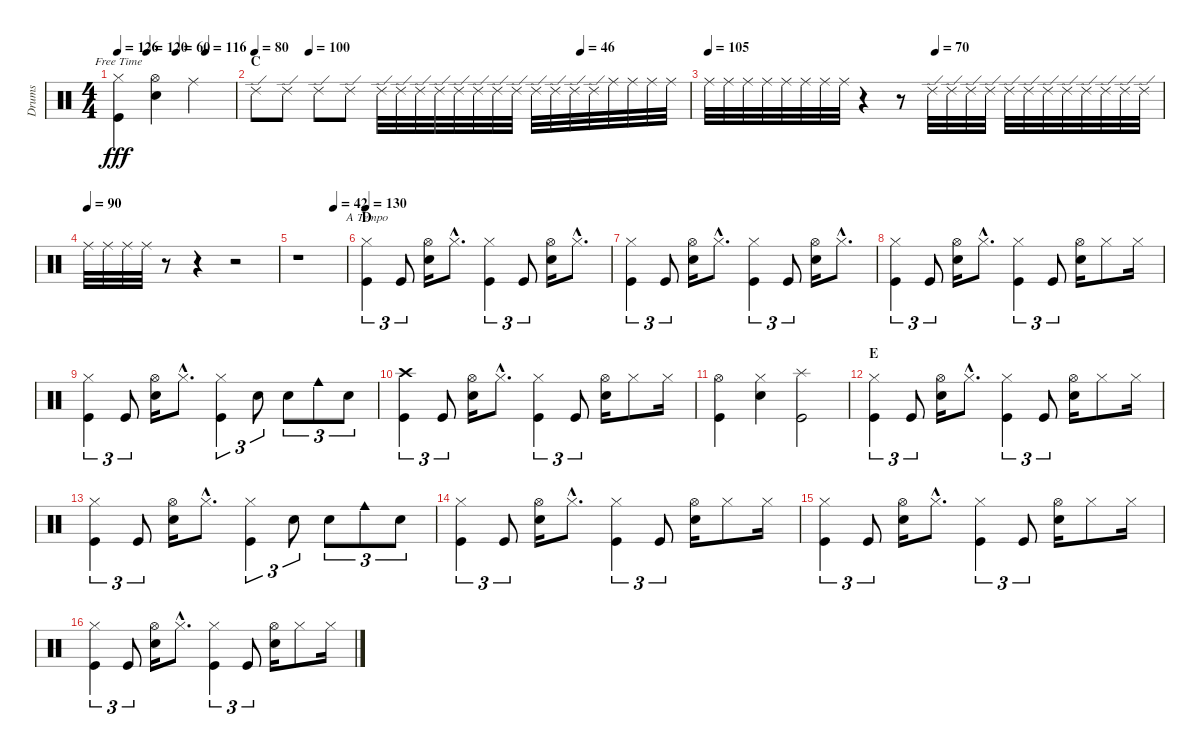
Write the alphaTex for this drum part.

\track ("Drums" "Drums") {instrument percussion}
\staff {score}
\articulation defaults
\chord ("Free Time") {firstfret 0}
\chord ("A Tempo") {firstfret 0}
\ts (4 4)
\tempo 126
\tempo (120 0.25)
\tempo (60 0.5)
\tempo (116 0.75)
\clef neutral
\ks c
("Hi-Hat (closed)" "Kick (hit)").4{ch "Free Time" dy fff} ("Hi-Hat (open)" "Snare (hit) 2").4 "Ride (middle)".2 |
\section ("" "C")
\tempo 80
\tempo (100 0.125)
\tempo (46 0.75)
"Ride (edge) 2".8 "Ride (edge) 2".8 "Ride (edge) 2".8 "Ride (edge) 2".8 "Ride (edge) 2".32 "Ride (edge) 2".32 "Ride (edge) 2".32 "Ride (edge) 2".32 "Ride (edge) 2".32 "Ride (edge) 2".32 "Ride (edge) 2".32 "Ride (edge) 2".32 "Ride (edge) 2".32 "Ride (edge) 2".32 "Ride (edge) 2".32 "Ride (edge) 2".32 "Ride (middle)".32 "Ride (middle)".32 "Ride (middle)".32 "Ride (middle)".32 |
\tempo 105
\tempo (70 0.5)
"Ride (middle)".32 "Ride (middle)".32 "Ride (middle)".32 "Ride (middle)".32 "Ride (middle)".32 "Ride (middle)".32 "Ride (middle)".32 "Ride (middle)".32 r.4 r.8 "Ride (edge) 2".32 "Ride (edge) 2".32 "Ride (edge) 2".32 "Ride (edge) 2".32 "Ride (edge) 2".32 "Ride (edge) 2".32 "Ride (edge) 2".32 "Ride (edge) 2".32 "Ride (edge) 2".32 "Ride (edge) 2".32 "Ride (edge) 2".32 "Ride (edge) 2".32 |
\tempo (90)
"Ride (middle)".32 "Ride (middle)".32 "Ride (middle)".32 "Ride (middle)".32 r.8 r.4 r.2 |
\tempo (42 0.75)
r.1 |
\section ("" "D")
\tempo 130
("Hi-Hat (closed)" "Kick (hit)").4{tu (3 2) ch "A Tempo"} "Kick (hit)".8{tu (3 2)} ("Hi-Hat (open)" "Snare (hit) 2").16 "Hi-Hat (closed)"{hac}.8{d} ("Hi-Hat (closed)" "Kick (hit)").4{tu (3 2)} "Kick (hit)".8{tu (3 2)} ("Hi-Hat (open)" "Snare (hit) 2").16 "Hi-Hat (closed)"{hac}.8{d} |
("Hi-Hat (closed)" "Kick (hit)").4{tu (3 2)} "Kick (hit)".8{tu (3 2)} ("Hi-Hat (open)" "Snare (hit) 2").16 "Hi-Hat (closed)"{hac}.8{d} ("Hi-Hat (closed)" "Kick (hit)").4{tu (3 2)} "Kick (hit)".8{tu (3 2)} ("Hi-Hat (open)" "Snare (hit) 2").16 "Hi-Hat (closed)"{hac}.8{d} |
("Hi-Hat (closed)" "Kick (hit)").4{tu (3 2)} "Kick (hit)".8{tu (3 2)} ("Hi-Hat (open)" "Snare (hit) 2").16 "Hi-Hat (closed)"{hac}.8{d} ("Hi-Hat (closed)" "Kick (hit)").4{tu (3 2)} "Kick (hit)".8{tu (3 2)} ("Hi-Hat (open)" "Snare (hit) 2").16 "Hi-Hat (closed)".8 "Hi-Hat (closed)".16 |
("Hi-Hat (closed)" "Kick (hit)").4{tu (3 2)} "Kick (hit)".8{tu (3 2)} ("Hi-Hat (open)" "Snare (hit) 2").16 "Hi-Hat (closed)"{hac}.8{d} ("Hi-Hat (closed)" "Kick (hit)").4{tu (3 2)} "Electric Snare (hit)".8{tu (3 2)} "Snare (hit) 2".8{tu (3 2)} "Cowbell medium (hit)".8{tu (3 2)} "Snare (hit) 2".8{tu (3 2)} |
("Crash high (hit)" "Kick (hit)").4{tu (3 2)} "Kick (hit)".8{tu (3 2)} ("Hi-Hat (open)" "Snare (hit) 2").16 "Hi-Hat (closed)"{hac}.8{d} ("Hi-Hat (closed)" "Kick (hit)").4{tu (3 2)} "Kick (hit)".8{tu (3 2)} ("Hi-Hat (open)" "Snare (hit) 2").16 "Hi-Hat (closed)".8 "Hi-Hat (closed)".16 |
("Hi-Hat (open)" "Kick (hit)").4 ("Hi-Hat (closed)" "Snare (hit) 2").4 ("Splash (hit)" "Kick (hit)").2 |
\section ("" "E")
("Hi-Hat (closed)" "Kick (hit)").4{tu (3 2)} "Kick (hit)".8{tu (3 2)} ("Hi-Hat (open)" "Snare (hit) 2").16 "Hi-Hat (closed)"{hac}.8{d} ("Hi-Hat (closed)" "Kick (hit)").4{tu (3 2)} "Kick (hit)".8{tu (3 2)} ("Hi-Hat (open)" "Snare (hit) 2").16 "Hi-Hat (closed)".8 "Hi-Hat (closed)".16 |
("Hi-Hat (closed)" "Kick (hit)").4{tu (3 2)} "Kick (hit)".8{tu (3 2)} ("Hi-Hat (open)" "Snare (hit) 2").16 "Hi-Hat (closed)"{hac}.8{d} ("Hi-Hat (closed)" "Kick (hit)").4{tu (3 2)} "Electric Snare (hit)".8{tu (3 2)} "Snare (hit) 2".8{tu (3 2)} "Cowbell medium (hit)".8{tu (3 2)} "Snare (hit) 2".8{tu (3 2)} |
("Hi-Hat (closed)" "Kick (hit)").4{tu (3 2)} "Kick (hit)".8{tu (3 2)} ("Hi-Hat (open)" "Snare (hit) 2").16 "Hi-Hat (closed)"{hac}.8{d} ("Hi-Hat (closed)" "Kick (hit)").4{tu (3 2)} "Kick (hit)".8{tu (3 2)} ("Hi-Hat (open)" "Snare (hit) 2").16 "Hi-Hat (closed)".8 "Hi-Hat (closed)".16 |
("Hi-Hat (closed)" "Kick (hit)").4{tu (3 2)} "Kick (hit)".8{tu (3 2)} ("Hi-Hat (open)" "Snare (hit) 2").16 "Hi-Hat (closed)"{hac}.8{d} ("Hi-Hat (closed)" "Kick (hit)").4{tu (3 2)} "Kick (hit)".8{tu (3 2)} ("Hi-Hat (open)" "Snare (hit) 2").16 "Hi-Hat (closed)".8 "Hi-Hat (closed)".16 |
("Hi-Hat (closed)" "Kick (hit)").4{tu (3 2)} "Kick (hit)".8{tu (3 2)} ("Hi-Hat (open)" "Snare (hit) 2").16 "Hi-Hat (closed)"{hac}.8{d} ("Hi-Hat (closed)" "Kick (hit)").4{tu (3 2)} "Kick (hit)".8{tu (3 2)} ("Hi-Hat (open)" "Snare (hit) 2").16 "Hi-Hat (closed)".8 "Hi-Hat (closed)".16
